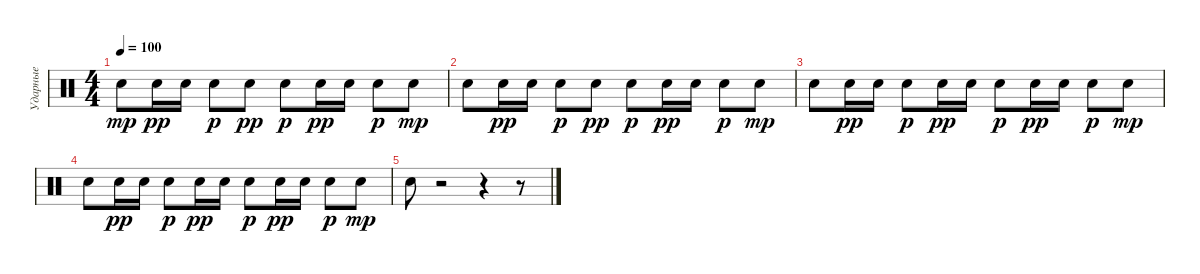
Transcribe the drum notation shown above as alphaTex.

\track ("Ударные" "Ударные") {instrument percussion}
\staff {score}
\articulation defaults
\ts (4 4)
\tempo 100
\clef neutral
\ks c "Electric Snare (hit)".8{dy mp} "Electric Snare (hit)".16{dy pp} "Electric Snare (hit)".16 "Electric Snare (hit)".8{dy p} "Electric Snare (hit)".8{dy pp} "Electric Snare (hit)".8{dy p} "Electric Snare (hit)".16{dy pp} "Electric Snare (hit)".16 "Electric Snare (hit)".8{dy p} "Electric Snare (hit)".8{dy mp}
|
"Electric Snare (hit)".8 "Electric Snare (hit)".16{dy pp} "Electric Snare (hit)".16 "Electric Snare (hit)".8{dy p} "Electric Snare (hit)".8{dy pp} "Electric Snare (hit)".8{dy p} "Electric Snare (hit)".16{dy pp} "Electric Snare (hit)".16 "Electric Snare (hit)".8{dy p} "Electric Snare (hit)".8{dy mp} |
"Electric Snare (hit)".8 "Electric Snare (hit)".16{dy pp volume 16} "Electric Snare (hit)".16{volume 15} "Electric Snare (hit)".8{dy p volume 15} "Electric Snare (hit)".16{dy pp volume 14} "Electric Snare (hit)".16{volume 14} "Electric Snare (hit)".8{dy p volume 13} "Electric Snare (hit)".16{dy pp volume 12} "Electric Snare (hit)".16{volume 12} "Electric Snare (hit)".8{dy p volume 12} "Electric Snare (hit)".8{dy mp volume 11} |
"Electric Snare (hit)".8{volume 10} "Electric Snare (hit)".16{dy pp volume 9} "Electric Snare (hit)".16{volume 9} "Electric Snare (hit)".8{dy p volume 9} "Electric Snare (hit)".16{dy pp volume 8} "Electric Snare (hit)".16{volume 8} "Electric Snare (hit)".8{dy p volume 7} "Electric Snare (hit)".16{dy pp volume 6} "Electric Snare (hit)".16{volume 6} "Electric Snare (hit)".8{dy p volume 6} "Electric Snare (hit)".8{dy mp volume 5} |
"Electric Snare (hit)".8{volume 4} r.2 r.4 r.8
